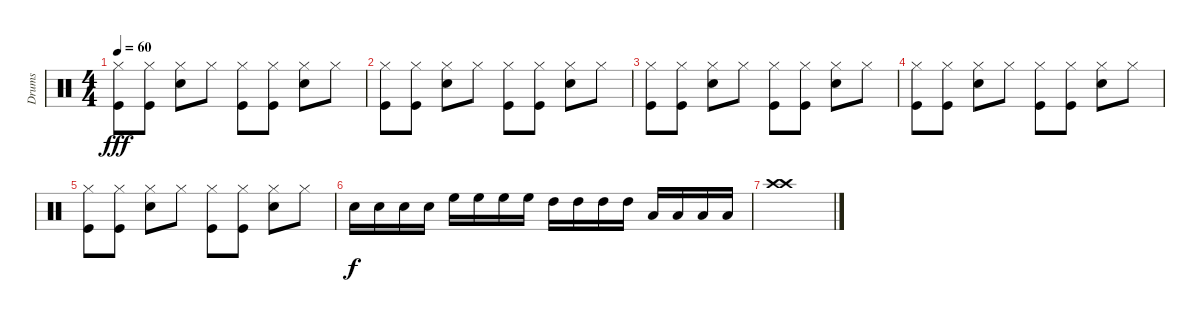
\track ("Drums" "Drums") {instrument percussion}
\staff {score}
\articulation defaults
\ts (4 4)
\tempo 60
\clef neutral
\ks c
("Hi-Hat (closed)" "Kick (hit)").8{dy fff} ("Hi-Hat (closed)" "Kick (hit)").8 ("Hi-Hat (closed)" "Snare (hit) 2").8 "Hi-Hat (closed)".8 ("Hi-Hat (closed)" "Kick (hit)").8 ("Hi-Hat (closed)" "Kick (hit)").8 ("Hi-Hat (closed)" "Snare (hit) 2").8 "Hi-Hat (closed)".8 |
("Hi-Hat (closed)" "Kick (hit)").8 ("Hi-Hat (closed)" "Kick (hit)").8 ("Hi-Hat (closed)" "Snare (hit) 2").8 "Hi-Hat (closed)".8 ("Hi-Hat (closed)" "Kick (hit)").8 ("Hi-Hat (closed)" "Kick (hit)").8 ("Hi-Hat (closed)" "Snare (hit) 2").8 "Hi-Hat (closed)".8 |
("Hi-Hat (closed)" "Kick (hit)").8 ("Hi-Hat (closed)" "Kick (hit)").8 ("Hi-Hat (closed)" "Snare (hit) 2").8 "Hi-Hat (closed)".8 ("Hi-Hat (closed)" "Kick (hit)").8 ("Hi-Hat (closed)" "Kick (hit)").8 ("Hi-Hat (closed)" "Snare (hit) 2").8 "Hi-Hat (closed)".8 |
("Hi-Hat (closed)" "Kick (hit)").8 ("Hi-Hat (closed)" "Kick (hit)").8 ("Hi-Hat (closed)" "Snare (hit) 2").8 "Hi-Hat (closed)".8 ("Hi-Hat (closed)" "Kick (hit)").8 ("Hi-Hat (closed)" "Kick (hit)").8 ("Hi-Hat (closed)" "Snare (hit) 2").8 "Hi-Hat (closed)".8 |
("Hi-Hat (closed)" "Kick (hit)").8 ("Hi-Hat (closed)" "Kick (hit)").8 ("Hi-Hat (closed)" "Snare (hit) 2").8 "Hi-Hat (closed)".8 ("Hi-Hat (closed)" "Kick (hit)").8 ("Hi-Hat (closed)" "Kick (hit)").8 ("Hi-Hat (closed)" "Snare (hit) 2").8 "Hi-Hat (closed)".8 |
"Snare (hit) 2".16{dy f} "Snare (hit) 2".16 "Snare (hit) 2".16 "Snare (hit) 2".16 "High Floor Tom (hit)".16 "High Floor Tom (hit)".16 "High Floor Tom (hit)".16 "High Floor Tom (hit)".16 "High Tom (hit)".16 "High Tom (hit)".16 "High Tom (hit)".16 "High Tom (hit)".16 "Low Tom (hit)".16 "Low Tom (hit)".16 "Low Tom (hit)".16 "Low Tom (hit)".16 |
("Crash high (hit)" "Crash high (hit)").1
